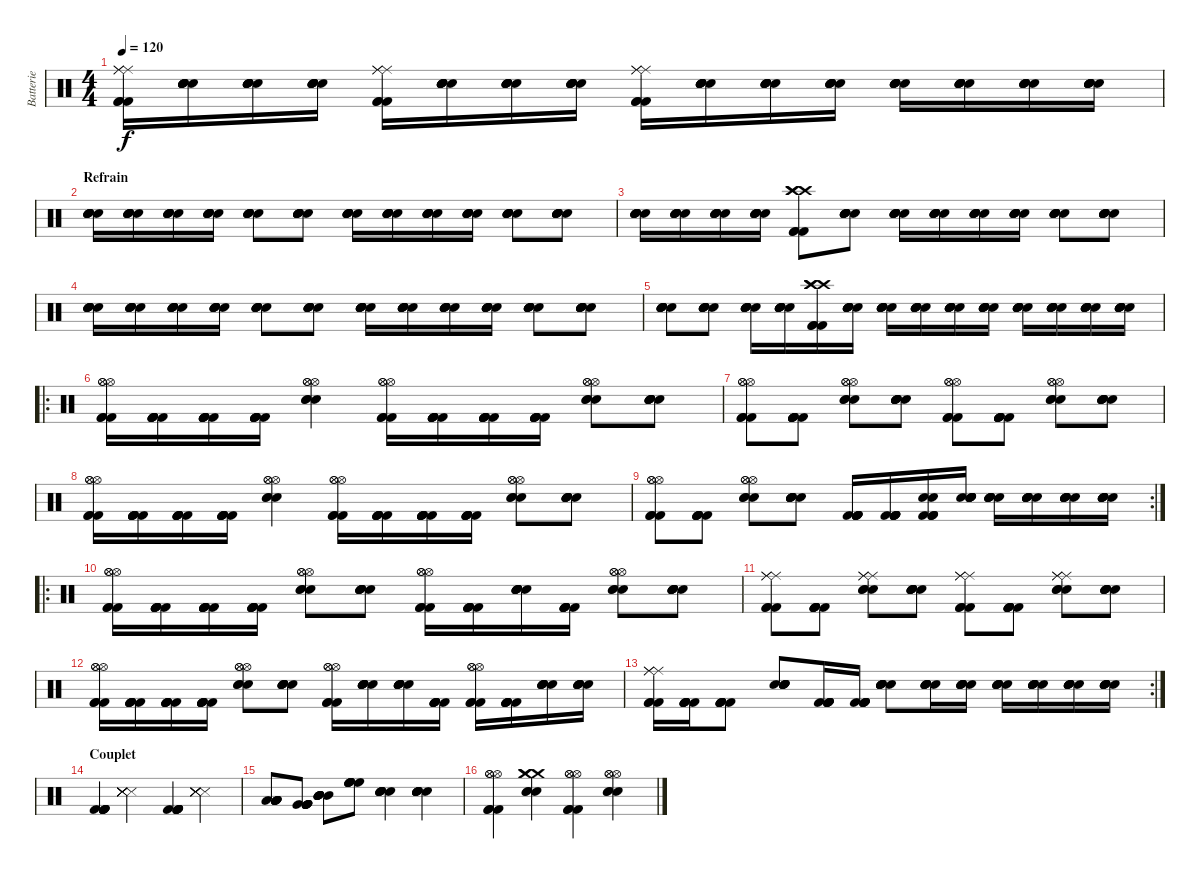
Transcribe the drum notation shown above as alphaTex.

\track ("Batterie" "Batterie") {instrument percussion}
\staff {score}
\articulation defaults
\ts (4 4)
\tempo 120
\clef neutral
\ks c
("Kick (hit) 2" "Kick (hit) 2" "Ride (middle)" "Ride (middle)" "Ride (middle)" "Kick (hit) 2").16{dy f} ("Snare (hit) 2" "Snare (hit) 2" "Snare (hit) 2" "Snare (hit) 2" "Snare (hit) 2" "Snare (hit) 2").16 ("Snare (hit) 2" "Snare (hit) 2" "Snare (hit) 2" "Snare (hit) 2" "Snare (hit) 2" "Snare (hit) 2").16 ("Snare (hit) 2" "Snare (hit) 2" "Snare (hit) 2" "Snare (hit) 2" "Snare (hit) 2" "Snare (hit) 2").16 ("Ride (middle)" "Kick (hit) 2" "Kick (hit) 2" "Kick (hit) 2" "Ride (middle)" "Ride (middle)").16 ("Snare (hit) 2" "Snare (hit) 2" "Snare (hit) 2" "Snare (hit) 2" "Snare (hit) 2" "Snare (hit) 2").16 ("Snare (hit) 2" "Snare (hit) 2" "Snare (hit) 2" "Snare (hit) 2" "Snare (hit) 2" "Snare (hit) 2").16 ("Snare (hit) 2" "Snare (hit) 2" "Snare (hit) 2" "Snare (hit) 2" "Snare (hit) 2" "Snare (hit) 2").16 ("Kick (hit) 2" "Kick (hit) 2" "Kick (hit) 2" "Ride (middle)" "Ride (middle)" "Ride (middle)").16 ("Snare (hit) 2" "Snare (hit) 2" "Snare (hit) 2" "Snare (hit) 2" "Snare (hit) 2" "Snare (hit) 2").16 ("Snare (hit) 2" "Snare (hit) 2" "Snare (hit) 2" "Snare (hit) 2" "Snare (hit) 2" "Snare (hit) 2").16 ("Snare (hit) 2" "Snare (hit) 2" "Snare (hit) 2" "Snare (hit) 2" "Snare (hit) 2" "Snare (hit) 2").16 ("Snare (hit) 2" "Snare (hit) 2" "Snare (hit) 2" "Snare (hit) 2" "Snare (hit) 2" "Snare (hit) 2").16 ("Snare (hit) 2" "Snare (hit) 2" "Snare (hit) 2" "Snare (hit) 2" "Snare (hit) 2" "Snare (hit) 2").16 ("Snare (hit) 2" "Snare (hit) 2" "Snare (hit) 2" "Snare (hit) 2" "Snare (hit) 2" "Snare (hit) 2").16 ("Snare (hit) 2" "Snare (hit) 2" "Snare (hit) 2" "Snare (hit) 2" "Snare (hit) 2" "Snare (hit) 2").16 |
\section ("" "Refrain")
("Snare (hit) 2" "Snare (hit) 2" "Snare (hit) 2" "Snare (hit) 2" "Snare (hit) 2" "Snare (hit) 2").16 ("Snare (hit) 2" "Snare (hit) 2" "Snare (hit) 2" "Snare (hit) 2" "Snare (hit) 2" "Snare (hit) 2").16 ("Snare (hit) 2" "Snare (hit) 2" "Snare (hit) 2" "Snare (hit) 2" "Snare (hit) 2" "Snare (hit) 2").16 ("Snare (hit) 2" "Snare (hit) 2" "Snare (hit) 2" "Snare (hit) 2" "Snare (hit) 2" "Snare (hit) 2").16 ("Snare (hit) 2" "Snare (hit) 2" "Snare (hit) 2" "Snare (hit) 2" "Snare (hit) 2" "Snare (hit) 2").8 ("Snare (hit) 2" "Snare (hit) 2" "Snare (hit) 2" "Snare (hit) 2" "Snare (hit) 2" "Snare (hit) 2").8 ("Snare (hit) 2" "Snare (hit) 2" "Snare (hit) 2" "Snare (hit) 2" "Snare (hit) 2" "Snare (hit) 2").16 ("Snare (hit) 2" "Snare (hit) 2" "Snare (hit) 2" "Snare (hit) 2" "Snare (hit) 2" "Snare (hit) 2").16 ("Snare (hit) 2" "Snare (hit) 2" "Snare (hit) 2" "Snare (hit) 2" "Snare (hit) 2" "Snare (hit) 2").16 ("Snare (hit) 2" "Snare (hit) 2" "Snare (hit) 2" "Snare (hit) 2" "Snare (hit) 2" "Snare (hit) 2").16 ("Snare (hit) 2" "Snare (hit) 2" "Snare (hit) 2" "Snare (hit) 2" "Snare (hit) 2" "Snare (hit) 2").8 ("Snare (hit) 2" "Snare (hit) 2" "Snare (hit) 2" "Snare (hit) 2" "Snare (hit) 2" "Snare (hit) 2").8 |
("Snare (hit) 2" "Snare (hit) 2" "Snare (hit) 2" "Snare (hit) 2" "Snare (hit) 2" "Snare (hit) 2").16 ("Snare (hit) 2" "Snare (hit) 2" "Snare (hit) 2" "Snare (hit) 2" "Snare (hit) 2" "Snare (hit) 2").16 ("Snare (hit) 2" "Snare (hit) 2" "Snare (hit) 2" "Snare (hit) 2" "Snare (hit) 2" "Snare (hit) 2").16 ("Snare (hit) 2" "Snare (hit) 2" "Snare (hit) 2" "Snare (hit) 2" "Snare (hit) 2" "Snare (hit) 2").16 ("Kick (hit) 2" "Crash high (hit)" "Crash high (hit)" "Crash high (hit)" "Kick (hit) 2" "Kick (hit) 2").8 ("Snare (hit) 2" "Snare (hit) 2" "Snare (hit) 2" "Snare (hit) 2" "Snare (hit) 2" "Snare (hit) 2").8 ("Snare (hit) 2" "Snare (hit) 2" "Snare (hit) 2" "Snare (hit) 2" "Snare (hit) 2" "Snare (hit) 2").16 ("Snare (hit) 2" "Snare (hit) 2" "Snare (hit) 2" "Snare (hit) 2" "Snare (hit) 2" "Snare (hit) 2").16 ("Snare (hit) 2" "Snare (hit) 2" "Snare (hit) 2" "Snare (hit) 2" "Snare (hit) 2" "Snare (hit) 2").16 ("Snare (hit) 2" "Snare (hit) 2" "Snare (hit) 2" "Snare (hit) 2" "Snare (hit) 2" "Snare (hit) 2").16 ("Snare (hit) 2" "Snare (hit) 2" "Snare (hit) 2" "Snare (hit) 2" "Snare (hit) 2" "Snare (hit) 2").8 ("Snare (hit) 2" "Snare (hit) 2" "Snare (hit) 2" "Snare (hit) 2" "Snare (hit) 2" "Snare (hit) 2").8 |
("Snare (hit) 2" "Snare (hit) 2" "Snare (hit) 2" "Snare (hit) 2" "Snare (hit) 2" "Snare (hit) 2").16 ("Snare (hit) 2" "Snare (hit) 2" "Snare (hit) 2" "Snare (hit) 2" "Snare (hit) 2" "Snare (hit) 2").16 ("Snare (hit) 2" "Snare (hit) 2" "Snare (hit) 2" "Snare (hit) 2" "Snare (hit) 2" "Snare (hit) 2").16 ("Snare (hit) 2" "Snare (hit) 2" "Snare (hit) 2" "Snare (hit) 2" "Snare (hit) 2" "Snare (hit) 2").16 ("Snare (hit) 2" "Snare (hit) 2" "Snare (hit) 2" "Snare (hit) 2" "Snare (hit) 2" "Snare (hit) 2").8 ("Snare (hit) 2" "Snare (hit) 2" "Snare (hit) 2" "Snare (hit) 2" "Snare (hit) 2" "Snare (hit) 2").8 ("Snare (hit) 2" "Snare (hit) 2" "Snare (hit) 2" "Snare (hit) 2" "Snare (hit) 2" "Snare (hit) 2").16 ("Snare (hit) 2" "Snare (hit) 2" "Snare (hit) 2" "Snare (hit) 2" "Snare (hit) 2" "Snare (hit) 2").16 ("Snare (hit) 2" "Snare (hit) 2" "Snare (hit) 2" "Snare (hit) 2" "Snare (hit) 2" "Snare (hit) 2").16 ("Snare (hit) 2" "Snare (hit) 2" "Snare (hit) 2" "Snare (hit) 2" "Snare (hit) 2" "Snare (hit) 2").16 ("Snare (hit) 2" "Snare (hit) 2" "Snare (hit) 2" "Snare (hit) 2" "Snare (hit) 2" "Snare (hit) 2").8 ("Snare (hit) 2" "Snare (hit) 2" "Snare (hit) 2" "Snare (hit) 2" "Snare (hit) 2" "Snare (hit) 2").8 |
("Snare (hit) 2" "Snare (hit) 2" "Snare (hit) 2" "Snare (hit) 2" "Snare (hit) 2" "Snare (hit) 2").8 ("Snare (hit) 2" "Snare (hit) 2" "Snare (hit) 2" "Snare (hit) 2" "Snare (hit) 2" "Snare (hit) 2").8 ("Snare (hit) 2" "Snare (hit) 2" "Snare (hit) 2" "Snare (hit) 2" "Snare (hit) 2" "Snare (hit) 2").16 ("Snare (hit) 2" "Snare (hit) 2" "Snare (hit) 2" "Snare (hit) 2" "Snare (hit) 2" "Snare (hit) 2").16 ("Kick (hit) 2" "Crash high (hit)" "Crash high (hit)" "Crash high (hit)" "Kick (hit) 2" "Kick (hit) 2").16 ("Snare (hit) 2" "Snare (hit) 2" "Snare (hit) 2" "Snare (hit) 2" "Snare (hit) 2" "Snare (hit) 2").16 ("Snare (hit) 2" "Snare (hit) 2" "Snare (hit) 2" "Snare (hit) 2" "Snare (hit) 2" "Snare (hit) 2").16 ("Snare (hit) 2" "Snare (hit) 2" "Snare (hit) 2" "Snare (hit) 2" "Snare (hit) 2" "Snare (hit) 2").16 ("Snare (hit) 2" "Snare (hit) 2" "Snare (hit) 2" "Snare (hit) 2" "Snare (hit) 2" "Snare (hit) 2").16 ("Snare (hit) 2" "Snare (hit) 2" "Snare (hit) 2" "Snare (hit) 2" "Snare (hit) 2" "Snare (hit) 2").16 ("Snare (hit) 2" "Snare (hit) 2" "Snare (hit) 2" "Snare (hit) 2" "Snare (hit) 2" "Snare (hit) 2").16 ("Snare (hit) 2" "Snare (hit) 2" "Snare (hit) 2" "Snare (hit) 2" "Snare (hit) 2" "Snare (hit) 2").16 ("Snare (hit) 2" "Snare (hit) 2" "Snare (hit) 2" "Snare (hit) 2" "Snare (hit) 2" "Snare (hit) 2").16 ("Snare (hit) 2" "Snare (hit) 2" "Snare (hit) 2" "Snare (hit) 2" "Snare (hit) 2" "Snare (hit) 2").16 |
\ro
("Hi-Hat (open)" "Hi-Hat (open)" "Hi-Hat (open)" "Kick (hit) 2" "Kick (hit) 2" "Kick (hit) 2").16 ("Kick (hit) 2" "Kick (hit) 2" "Kick (hit) 2" "Kick (hit) 2" "Kick (hit) 2" "Kick (hit) 2").16 ("Kick (hit) 2" "Kick (hit) 2" "Kick (hit) 2" "Kick (hit) 2" "Kick (hit) 2" "Kick (hit) 2").16 ("Kick (hit) 2" "Kick (hit) 2" "Kick (hit) 2" "Kick (hit) 2" "Kick (hit) 2" "Kick (hit) 2").16 ("Hi-Hat (open)" "Hi-Hat (open)" "Hi-Hat (open)" "Snare (hit) 2" "Snare (hit) 2" "Snare (hit) 2").4 ("Hi-Hat (open)" "Hi-Hat (open)" "Hi-Hat (open)" "Kick (hit) 2" "Kick (hit) 2" "Kick (hit) 2").16 ("Kick (hit) 2" "Kick (hit) 2" "Kick (hit) 2" "Kick (hit) 2" "Kick (hit) 2" "Kick (hit) 2").16 ("Kick (hit) 2" "Kick (hit) 2" "Kick (hit) 2" "Kick (hit) 2" "Kick (hit) 2" "Kick (hit) 2").16 ("Kick (hit) 2" "Kick (hit) 2" "Kick (hit) 2" "Kick (hit) 2" "Kick (hit) 2" "Kick (hit) 2").16 ("Hi-Hat (open)" "Hi-Hat (open)" "Snare (hit) 2" "Snare (hit) 2" "Snare (hit) 2" "Hi-Hat (open)").8 ("Snare (hit) 2" "Snare (hit) 2" "Snare (hit) 2" "Snare (hit) 2" "Snare (hit) 2" "Snare (hit) 2").8 |
("Hi-Hat (open)" "Hi-Hat (open)" "Hi-Hat (open)" "Kick (hit) 2" "Kick (hit) 2" "Kick (hit) 2").8 ("Kick (hit) 2" "Kick (hit) 2" "Kick (hit) 2" "Kick (hit) 2" "Kick (hit) 2" "Kick (hit) 2").8 ("Snare (hit) 2" "Snare (hit) 2" "Snare (hit) 2" "Hi-Hat (open)" "Hi-Hat (open)" "Hi-Hat (open)").8 ("Snare (hit) 2" "Snare (hit) 2" "Snare (hit) 2" "Snare (hit) 2" "Snare (hit) 2" "Snare (hit) 2").8 ("Kick (hit) 2" "Kick (hit) 2" "Hi-Hat (open)" "Hi-Hat (open)" "Hi-Hat (open)" "Kick (hit) 2").8 ("Kick (hit) 2" "Kick (hit) 2" "Kick (hit) 2" "Kick (hit) 2" "Kick (hit) 2" "Kick (hit) 2").8 ("Snare (hit) 2" "Hi-Hat (open)" "Hi-Hat (open)" "Hi-Hat (open)" "Snare (hit) 2" "Snare (hit) 2").8 ("Snare (hit) 2" "Snare (hit) 2" "Snare (hit) 2" "Snare (hit) 2" "Snare (hit) 2" "Snare (hit) 2").8 |
("Hi-Hat (open)" "Hi-Hat (open)" "Hi-Hat (open)" "Kick (hit) 2" "Kick (hit) 2" "Kick (hit) 2").16 ("Kick (hit) 2" "Kick (hit) 2" "Kick (hit) 2" "Kick (hit) 2" "Kick (hit) 2" "Kick (hit) 2").16 ("Kick (hit) 2" "Kick (hit) 2" "Kick (hit) 2" "Kick (hit) 2" "Kick (hit) 2" "Kick (hit) 2").16 ("Kick (hit) 2" "Kick (hit) 2" "Kick (hit) 2" "Kick (hit) 2" "Kick (hit) 2" "Kick (hit) 2").16 ("Hi-Hat (open)" "Hi-Hat (open)" "Hi-Hat (open)" "Snare (hit) 2" "Snare (hit) 2" "Snare (hit) 2").4 ("Hi-Hat (open)" "Hi-Hat (open)" "Hi-Hat (open)" "Kick (hit) 2" "Kick (hit) 2" "Kick (hit) 2").16 ("Kick (hit) 2" "Kick (hit) 2" "Kick (hit) 2" "Kick (hit) 2" "Kick (hit) 2" "Kick (hit) 2").16 ("Kick (hit) 2" "Kick (hit) 2" "Kick (hit) 2" "Kick (hit) 2" "Kick (hit) 2" "Kick (hit) 2").16 ("Kick (hit) 2" "Kick (hit) 2" "Kick (hit) 2" "Kick (hit) 2" "Kick (hit) 2" "Kick (hit) 2").16 ("Hi-Hat (open)" "Hi-Hat (open)" "Snare (hit) 2" "Snare (hit) 2" "Snare (hit) 2" "Hi-Hat (open)").8 ("Snare (hit) 2" "Snare (hit) 2" "Snare (hit) 2" "Snare (hit) 2" "Snare (hit) 2" "Snare (hit) 2").8 |
\rc 2
("Hi-Hat (open)" "Hi-Hat (open)" "Hi-Hat (open)" "Kick (hit) 2" "Kick (hit) 2" "Kick (hit) 2").8 ("Kick (hit) 2" "Kick (hit) 2" "Kick (hit) 2" "Kick (hit) 2" "Kick (hit) 2" "Kick (hit) 2").8 ("Snare (hit) 2" "Snare (hit) 2" "Snare (hit) 2" "Hi-Hat (open)" "Hi-Hat (open)" "Hi-Hat (open)").8 ("Snare (hit) 2" "Snare (hit) 2" "Snare (hit) 2" "Snare (hit) 2" "Snare (hit) 2" "Snare (hit) 2").8 ("Kick (hit) 2" "Kick (hit) 2" "Kick (hit) 2" "Kick (hit) 2" "Kick (hit) 2" "Kick (hit) 2").16 ("Kick (hit) 2" "Kick (hit) 2" "Kick (hit) 2" "Kick (hit) 2" "Kick (hit) 2" "Kick (hit) 2").16 ("Snare (hit) 2" "Kick (hit) 2" "Kick (hit) 2" "Kick (hit) 2" "Snare (hit) 2" "Kick (hit) 2").16 ("Snare (hit) 2" "Snare (hit) 2" "Snare (hit) 2" "Snare (hit) 2" "Snare (hit) 2" "Snare (hit) 2").16 ("Snare (hit) 2" "Snare (hit) 2" "Snare (hit) 2" "Snare (hit) 2" "Snare (hit) 2" "Snare (hit) 2").16 ("Snare (hit) 2" "Snare (hit) 2" "Snare (hit) 2" "Snare (hit) 2" "Snare (hit) 2" "Snare (hit) 2").16 ("Snare (hit) 2" "Snare (hit) 2" "Snare (hit) 2" "Snare (hit) 2" "Snare (hit) 2" "Snare (hit) 2").16 ("Snare (hit) 2" "Snare (hit) 2" "Snare (hit) 2" "Snare (hit) 2" "Snare (hit) 2" "Snare (hit) 2").16 |
\ro
("Hi-Hat (open)" "Hi-Hat (open)" "Hi-Hat (open)" "Kick (hit) 2" "Kick (hit) 2" "Kick (hit) 2").16 ("Kick (hit) 2" "Kick (hit) 2" "Kick (hit) 2" "Kick (hit) 2" "Kick (hit) 2" "Kick (hit) 2").16 ("Kick (hit) 2" "Kick (hit) 2" "Kick (hit) 2" "Kick (hit) 2" "Kick (hit) 2" "Kick (hit) 2").16 ("Kick (hit) 2" "Kick (hit) 2" "Kick (hit) 2" "Kick (hit) 2" "Kick (hit) 2" "Kick (hit) 2").16 ("Hi-Hat (open)" "Hi-Hat (open)" "Hi-Hat (open)" "Snare (hit) 2" "Snare (hit) 2" "Snare (hit) 2").8 ("Snare (hit) 2" "Snare (hit) 2" "Snare (hit) 2" "Snare (hit) 2" "Snare (hit) 2" "Snare (hit) 2").8 ("Hi-Hat (open)" "Hi-Hat (open)" "Hi-Hat (open)" "Kick (hit) 2" "Kick (hit) 2" "Kick (hit) 2").16 ("Kick (hit) 2" "Kick (hit) 2" "Kick (hit) 2" "Kick (hit) 2" "Kick (hit) 2" "Kick (hit) 2").16 ("Snare (hit) 2" "Snare (hit) 2" "Snare (hit) 2" "Snare (hit) 2" "Snare (hit) 2" "Snare (hit) 2").16 ("Kick (hit) 2" "Kick (hit) 2" "Kick (hit) 2" "Kick (hit) 2" "Kick (hit) 2" "Kick (hit) 2").16 ("Hi-Hat (open)" "Hi-Hat (open)" "Hi-Hat (open)" "Snare (hit) 2" "Snare (hit) 2" "Snare (hit) 2").8 ("Snare (hit) 2" "Snare (hit) 2" "Snare (hit) 2" "Snare (hit) 2" "Snare (hit) 2" "Snare (hit) 2").8 |
("Ride (middle)" "Ride (middle)" "Ride (middle)" "Kick (hit) 2" "Kick (hit) 2" "Kick (hit) 2").8 ("Kick (hit) 2" "Kick (hit) 2" "Kick (hit) 2" "Kick (hit) 2" "Kick (hit) 2" "Kick (hit) 2").8 ("Ride (middle)" "Ride (middle)" "Ride (middle)" "Snare (hit) 2" "Snare (hit) 2" "Snare (hit) 2").8 ("Snare (hit) 2" "Snare (hit) 2" "Snare (hit) 2" "Snare (hit) 2" "Snare (hit) 2" "Snare (hit) 2").8 ("Kick (hit) 2" "Kick (hit) 2" "Ride (middle)" "Ride (middle)" "Ride (middle)" "Kick (hit) 2").8 ("Kick (hit) 2" "Kick (hit) 2" "Kick (hit) 2" "Kick (hit) 2" "Kick (hit) 2" "Kick (hit) 2").8 ("Ride (middle)" "Snare (hit) 2" "Snare (hit) 2" "Snare (hit) 2" "Ride (middle)" "Ride (middle)").8 ("Snare (hit) 2" "Snare (hit) 2" "Snare (hit) 2" "Snare (hit) 2" "Snare (hit) 2" "Snare (hit) 2").8 |
("Hi-Hat (open)" "Hi-Hat (open)" "Hi-Hat (open)" "Kick (hit) 2" "Kick (hit) 2" "Kick (hit) 2").16 ("Kick (hit) 2" "Kick (hit) 2" "Kick (hit) 2" "Kick (hit) 2" "Kick (hit) 2" "Kick (hit) 2").16 ("Kick (hit) 2" "Kick (hit) 2" "Kick (hit) 2" "Kick (hit) 2" "Kick (hit) 2" "Kick (hit) 2").16 ("Kick (hit) 2" "Kick (hit) 2" "Kick (hit) 2" "Kick (hit) 2" "Kick (hit) 2" "Kick (hit) 2").16 ("Hi-Hat (open)" "Hi-Hat (open)" "Hi-Hat (open)" "Snare (hit) 2" "Snare (hit) 2" "Snare (hit) 2").8 ("Snare (hit) 2" "Snare (hit) 2" "Snare (hit) 2" "Snare (hit) 2" "Snare (hit) 2" "Snare (hit) 2").8 ("Hi-Hat (open)" "Hi-Hat (open)" "Hi-Hat (open)" "Kick (hit) 2" "Kick (hit) 2" "Kick (hit) 2").16 ("Snare (hit) 2" "Snare (hit) 2" "Snare (hit) 2" "Snare (hit) 2" "Snare (hit) 2" "Snare (hit) 2").16 ("Snare (hit) 2" "Snare (hit) 2" "Snare (hit) 2" "Snare (hit) 2" "Snare (hit) 2" "Snare (hit) 2").16 ("Kick (hit) 2" "Kick (hit) 2" "Kick (hit) 2" "Kick (hit) 2" "Kick (hit) 2" "Kick (hit) 2").16 ("Hi-Hat (open)" "Hi-Hat (open)" "Hi-Hat (open)" "Kick (hit) 2" "Kick (hit) 2" "Kick (hit) 2").16 ("Kick (hit) 2" "Kick (hit) 2" "Kick (hit) 2" "Kick (hit) 2" "Kick (hit) 2" "Kick (hit) 2").16 ("Snare (hit) 2" "Snare (hit) 2" "Snare (hit) 2" "Snare (hit) 2" "Snare (hit) 2" "Snare (hit) 2").16 ("Snare (hit) 2" "Snare (hit) 2" "Snare (hit) 2" "Snare (hit) 2" "Snare (hit) 2" "Snare (hit) 2").16 |
\rc 2
("Ride (middle)" "Ride (middle)" "Ride (middle)" "Kick (hit) 2" "Kick (hit) 2" "Kick (hit) 2").16 ("Kick (hit) 2" "Kick (hit) 2" "Kick (hit) 2" "Kick (hit) 2" "Kick (hit) 2" "Kick (hit) 2").16 ("Kick (hit) 2" "Kick (hit) 2" "Kick (hit) 2" "Kick (hit) 2" "Kick (hit) 2" "Kick (hit) 2").8 ("Snare (hit) 2" "Snare (hit) 2" "Snare (hit) 2" "Snare (hit) 2" "Snare (hit) 2" "Snare (hit) 2").8 ("Kick (hit) 2" "Kick (hit) 2" "Kick (hit) 2" "Kick (hit) 2" "Kick (hit) 2" "Kick (hit) 2").16 ("Kick (hit) 2" "Kick (hit) 2" "Kick (hit) 2" "Kick (hit) 2" "Kick (hit) 2" "Kick (hit) 2").16 ("Snare (hit) 2" "Snare (hit) 2" "Snare (hit) 2" "Snare (hit) 2" "Snare (hit) 2" "Snare (hit) 2").8 ("Snare (hit) 2" "Snare (hit) 2" "Snare (hit) 2" "Snare (hit) 2" "Snare (hit) 2" "Snare (hit) 2").16 ("Snare (hit) 2" "Snare (hit) 2" "Snare (hit) 2" "Snare (hit) 2" "Snare (hit) 2" "Snare (hit) 2").16 ("Snare (hit) 2" "Snare (hit) 2" "Snare (hit) 2" "Snare (hit) 2" "Snare (hit) 2" "Snare (hit) 2").16 ("Snare (hit) 2" "Snare (hit) 2" "Snare (hit) 2" "Snare (hit) 2" "Snare (hit) 2" "Snare (hit) 2").16 ("Snare (hit) 2" "Snare (hit) 2" "Snare (hit) 2" "Snare (hit) 2" "Snare (hit) 2" "Snare (hit) 2").16 ("Snare (hit) 2" "Snare (hit) 2" "Snare (hit) 2" "Snare (hit) 2" "Snare (hit) 2" "Snare (hit) 2").16 |
\section ("" "Couplet")
("Kick (hit) 2" "Kick (hit) 2" "Kick (hit) 2" "Kick (hit) 2" "Kick (hit) 2" "Kick (hit) 2").4 ("Snare (side stick) 3" "Snare (side stick) 3" "Snare (side stick) 3" "Snare (side stick) 3" "Snare (side stick) 3" "Snare (side stick) 3").4 ("Kick (hit) 2" "Kick (hit) 2" "Kick (hit) 2" "Kick (hit) 2" "Kick (hit) 2" "Kick (hit) 2").4 ("Snare (side stick) 3" "Snare (side stick) 3" "Snare (side stick) 3" "Snare (side stick) 3" "Snare (side stick) 3" "Snare (side stick) 3").4 |
("Low Floor Tom (hit)" "Low Floor Tom (hit)" "Low Floor Tom (hit)" "Low Floor Tom (hit)" "Low Floor Tom (hit)" "Low Floor Tom (hit)").8 ("Very Low Tom (hit)" "Very Low Tom (hit)" "Very Low Tom (hit)" "Very Low Tom (hit)" "Very Low Tom (hit)" "Very Low Tom (hit)").8 ("Mid Tom (hit)" "Mid Tom (hit)" "Mid Tom (hit)" "Mid Tom (hit)" "Mid Tom (hit)" "Mid Tom (hit)").8 ("High Floor Tom (hit)" "High Floor Tom (hit)" "High Floor Tom (hit)" "High Floor Tom (hit)" "High Floor Tom (hit)" "High Floor Tom (hit)").8 ("Snare (hit) 2" "Snare (hit) 2" "Snare (hit) 2" "Snare (hit) 2" "Snare (hit) 2" "Snare (hit) 2").4 ("Snare (hit) 2" "Snare (hit) 2" "Snare (hit) 2" "Snare (hit) 2" "Snare (hit) 2" "Snare (hit) 2").4 |
("Hi-Hat (open)" "Hi-Hat (open)" "Hi-Hat (open)" "Kick (hit) 2" "Kick (hit) 2" "Kick (hit) 2").4 ("Crash medium (hit)" "Crash medium (hit)" "Crash medium (hit)" "Snare (hit) 2" "Snare (hit) 2" "Snare (hit) 2").4 ("Kick (hit) 2" "Kick (hit) 2" "Hi-Hat (open)" "Hi-Hat (open)" "Hi-Hat (open)" "Kick (hit) 2").4 ("Hi-Hat (open)" "Hi-Hat (open)" "Snare (hit) 2" "Snare (hit) 2" "Snare (hit) 2" "Hi-Hat (open)").4
